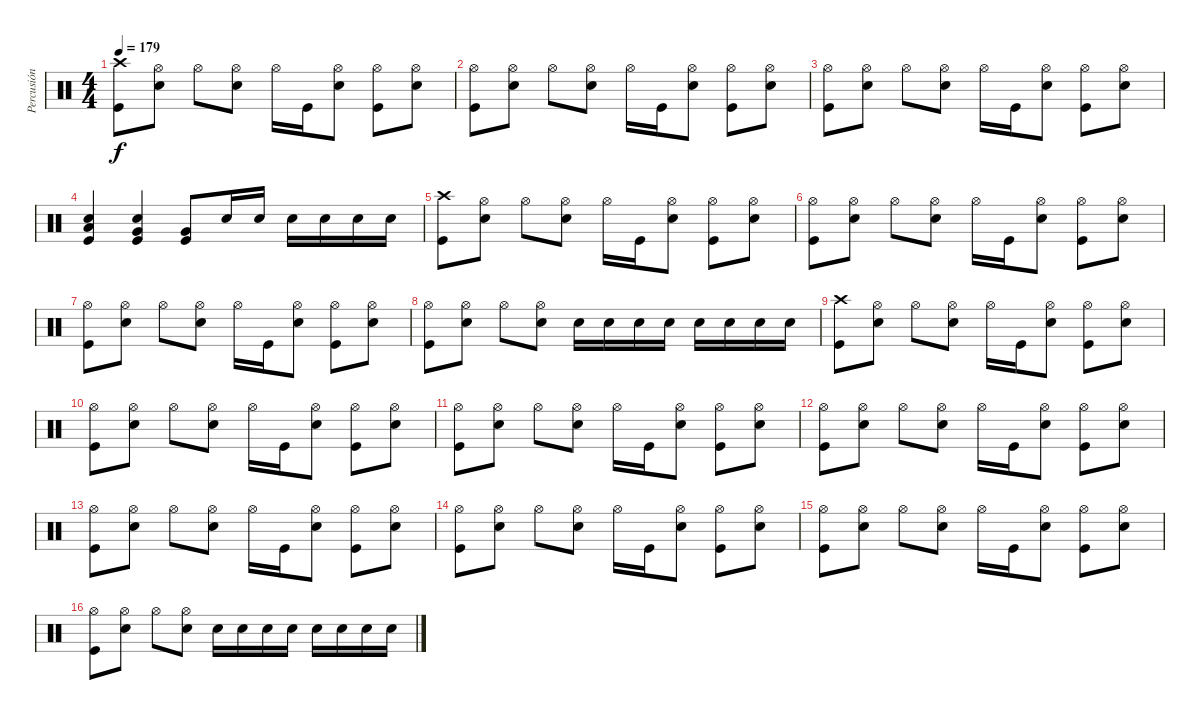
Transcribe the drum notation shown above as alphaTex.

\track ("Percusión" "Percusión") {instrument percussion}
\staff {score}
\articulation defaults
\ts (4 4)
\tempo 179
\clef neutral
\ks c
("Crash high (hit)" "Kick (hit)").8{dy f} ("Hi-Hat (open)" "Snare (hit) 2").8 "Hi-Hat (open)".8 ("Hi-Hat (open)" "Snare (hit) 2").8 "Hi-Hat (open)".16 "Kick (hit)".16 ("Hi-Hat (open)" "Snare (hit) 2").8 ("Hi-Hat (open)" "Kick (hit)").8 ("Hi-Hat (open)" "Snare (hit) 2").8 |
("Hi-Hat (open)" "Kick (hit)").8 ("Hi-Hat (open)" "Snare (hit) 2").8 "Hi-Hat (open)".8 ("Hi-Hat (open)" "Snare (hit) 2").8 "Hi-Hat (open)".16 "Kick (hit)".16 ("Hi-Hat (open)" "Snare (hit) 2").8 ("Hi-Hat (open)" "Kick (hit)").8 ("Hi-Hat (open)" "Snare (hit) 2").8 |
("Hi-Hat (open)" "Kick (hit)").8 ("Hi-Hat (open)" "Snare (hit) 2").8 "Hi-Hat (open)".8 ("Hi-Hat (open)" "Snare (hit) 2").8 "Hi-Hat (open)".16 "Kick (hit)".16 ("Hi-Hat (open)" "Snare (hit) 2").8 ("Hi-Hat (open)" "Kick (hit)").8 ("Hi-Hat (open)" "Snare (hit) 2").8 |
("Low Tom (hit)" "Snare (hit) 2" "Kick (hit)").4 ("Very Low Tom (hit)" "Snare (hit) 2" "Kick (hit)").4 ("Very Low Tom (hit)" "Kick (hit)").8 "Snare (hit) 2".16 "Snare (hit) 2".16 "Snare (hit) 2".16 "Snare (hit) 2".16 "Snare (hit) 2".16 "Snare (hit) 2".16 |
("Crash high (hit)" "Kick (hit)").8 ("Hi-Hat (open)" "Snare (hit) 2").8 "Hi-Hat (open)".8 ("Hi-Hat (open)" "Snare (hit) 2").8 "Hi-Hat (open)".16 "Kick (hit)".16 ("Hi-Hat (open)" "Snare (hit) 2").8 ("Hi-Hat (open)" "Kick (hit)").8 ("Hi-Hat (open)" "Snare (hit) 2").8 |
("Hi-Hat (open)" "Kick (hit)").8 ("Hi-Hat (open)" "Snare (hit) 2").8 "Hi-Hat (open)".8 ("Hi-Hat (open)" "Snare (hit) 2").8 "Hi-Hat (open)".16 "Kick (hit)".16 ("Hi-Hat (open)" "Snare (hit) 2").8 ("Hi-Hat (open)" "Kick (hit)").8 ("Hi-Hat (open)" "Snare (hit) 2").8 |
("Hi-Hat (open)" "Kick (hit)").8 ("Hi-Hat (open)" "Snare (hit) 2").8 "Hi-Hat (open)".8 ("Hi-Hat (open)" "Snare (hit) 2").8 "Hi-Hat (open)".16 "Kick (hit)".16 ("Hi-Hat (open)" "Snare (hit) 2").8 ("Hi-Hat (open)" "Kick (hit)").8 ("Hi-Hat (open)" "Snare (hit) 2").8 |
("Hi-Hat (open)" "Kick (hit)").8 ("Hi-Hat (open)" "Snare (hit) 2").8 "Hi-Hat (open)".8 ("Hi-Hat (open)" "Snare (hit) 2").8 "Snare (hit) 2".16 "Snare (hit) 2".16 "Snare (hit) 2".16 "Snare (hit) 2".16 "Snare (hit) 2".16 "Snare (hit) 2".16 "Snare (hit) 2".16 "Snare (hit) 2".16 |
("Crash high (hit)" "Kick (hit)").8 ("Hi-Hat (open)" "Snare (hit) 2").8 "Hi-Hat (open)".8 ("Hi-Hat (open)" "Snare (hit) 2").8 "Hi-Hat (open)".16 "Kick (hit)".16 ("Hi-Hat (open)" "Snare (hit) 2").8 ("Hi-Hat (open)" "Kick (hit)").8 ("Hi-Hat (open)" "Snare (hit) 2").8 |
("Hi-Hat (open)" "Kick (hit)").8 ("Hi-Hat (open)" "Snare (hit) 2").8 "Hi-Hat (open)".8 ("Hi-Hat (open)" "Snare (hit) 2").8 "Hi-Hat (open)".16 "Kick (hit)".16 ("Hi-Hat (open)" "Snare (hit) 2").8 ("Hi-Hat (open)" "Kick (hit)").8 ("Hi-Hat (open)" "Snare (hit) 2").8 |
("Hi-Hat (open)" "Kick (hit)").8 ("Hi-Hat (open)" "Snare (hit) 2").8 "Hi-Hat (open)".8 ("Hi-Hat (open)" "Snare (hit) 2").8 "Hi-Hat (open)".16 "Kick (hit)".16 ("Hi-Hat (open)" "Snare (hit) 2").8 ("Hi-Hat (open)" "Kick (hit)").8 ("Hi-Hat (open)" "Snare (hit) 2").8 |
("Hi-Hat (open)" "Kick (hit)").8 ("Hi-Hat (open)" "Snare (hit) 2").8 "Hi-Hat (open)".8 ("Hi-Hat (open)" "Snare (hit) 2").8 "Hi-Hat (open)".16 "Kick (hit)".16 ("Hi-Hat (open)" "Snare (hit) 2").8 ("Hi-Hat (open)" "Kick (hit)").8 ("Hi-Hat (open)" "Snare (hit) 2").8 |
("Hi-Hat (open)" "Kick (hit)").8 ("Hi-Hat (open)" "Snare (hit) 2").8 "Hi-Hat (open)".8 ("Hi-Hat (open)" "Snare (hit) 2").8 "Hi-Hat (open)".16 "Kick (hit)".16 ("Hi-Hat (open)" "Snare (hit) 2").8 ("Hi-Hat (open)" "Kick (hit)").8 ("Hi-Hat (open)" "Snare (hit) 2").8 |
("Hi-Hat (open)" "Kick (hit)").8 ("Hi-Hat (open)" "Snare (hit) 2").8 "Hi-Hat (open)".8 ("Hi-Hat (open)" "Snare (hit) 2").8 "Hi-Hat (open)".16 "Kick (hit)".16 ("Hi-Hat (open)" "Snare (hit) 2").8 ("Hi-Hat (open)" "Kick (hit)").8 ("Hi-Hat (open)" "Snare (hit) 2").8 |
("Hi-Hat (open)" "Kick (hit)").8 ("Hi-Hat (open)" "Snare (hit) 2").8 "Hi-Hat (open)".8 ("Hi-Hat (open)" "Snare (hit) 2").8 "Hi-Hat (open)".16 "Kick (hit)".16 ("Hi-Hat (open)" "Snare (hit) 2").8 ("Hi-Hat (open)" "Kick (hit)").8 ("Hi-Hat (open)" "Snare (hit) 2").8 |
("Hi-Hat (open)" "Kick (hit)").8 ("Hi-Hat (open)" "Snare (hit) 2").8 "Hi-Hat (open)".8 ("Hi-Hat (open)" "Snare (hit) 2").8 "Snare (hit) 2".16 "Snare (hit) 2".16 "Snare (hit) 2".16 "Snare (hit) 2".16 "Snare (hit) 2".16 "Snare (hit) 2".16 "Snare (hit) 2".16 "Snare (hit) 2".16
